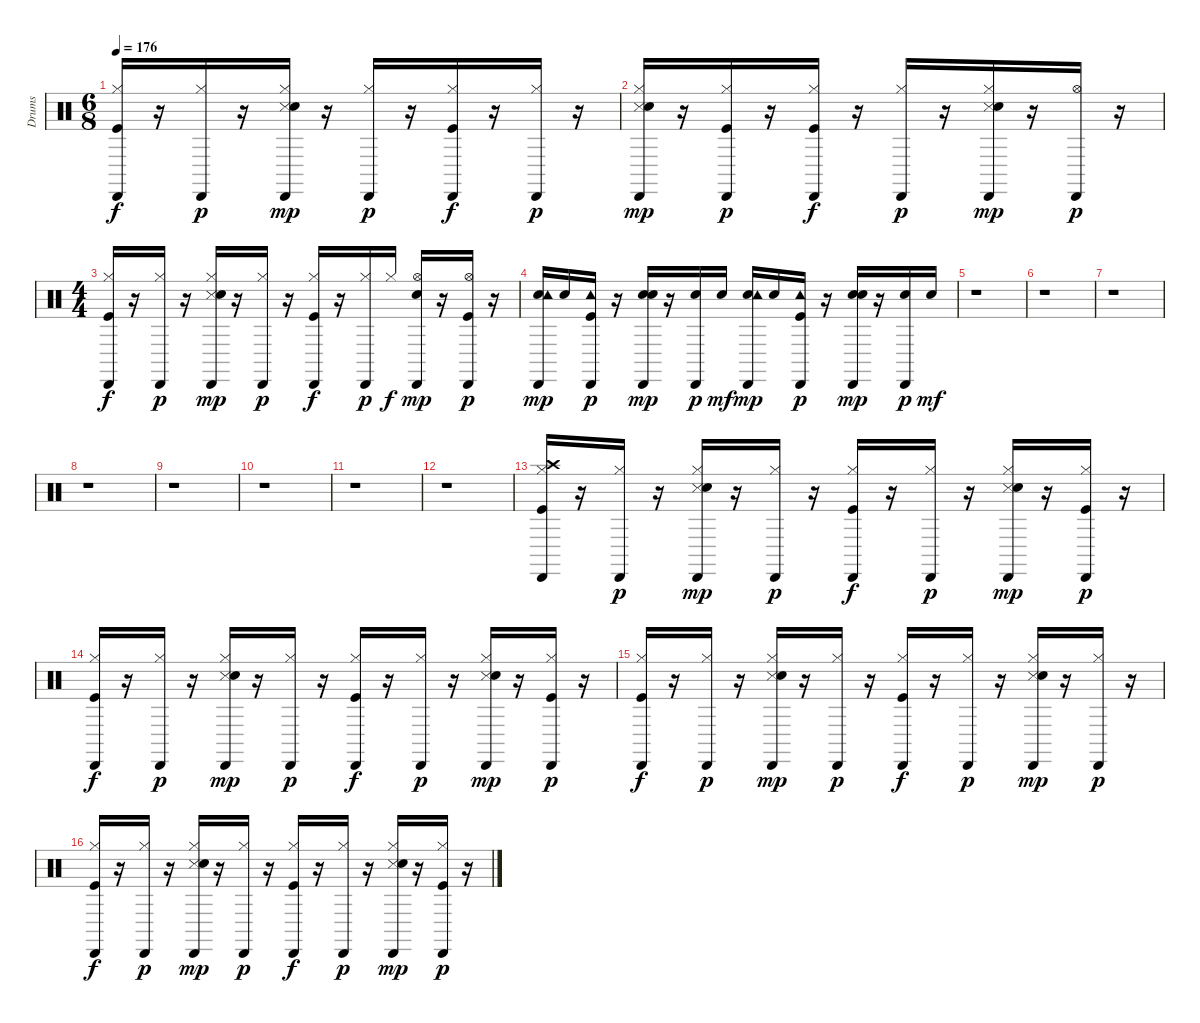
\track ("Drums" "Drums") {instrument percussion}
\staff {score}
\articulation defaults
\ts (6 8)
\tempo 176
\clef neutral
\ks c
("Kick (hit)" "Hi-Hat (closed)" "Cabasa (hit)").16{dy f} r.16 ("Hi-Hat (closed)" "Cabasa (hit)").16{dy p} r.16 ("Hi-Hat (closed)" "Snare (side stick) 3" "Hand Clap (hit)" "Cabasa (hit)").16{dy mp} r.16 ("Hi-Hat (closed)" "Cabasa (hit)").16{dy p} r.16 ("Kick (hit)" "Hi-Hat (closed)" "Cabasa (hit)").16{dy f} r.16 ("Hi-Hat (closed)" "Cabasa (hit)").16{dy p} r.16 |
("Hi-Hat (closed)" "Snare (side stick) 3" "Hand Clap (hit)" "Cabasa (hit)").16{dy mp} r.16 ("Kick (hit)" "Hi-Hat (closed)" "Cabasa (hit)").16{dy p} r.16 ("Kick (hit)" "Hi-Hat (closed)" "Cabasa (hit)").16{dy f} r.16 ("Hi-Hat (closed)" "Cabasa (hit)").16{dy p} r.16 ("Hi-Hat (closed)" "Snare (side stick) 3" "Hand Clap (hit)" "Cabasa (hit)").16{dy mp} r.16 ("Hi-Hat (open)" "Cabasa (hit)").16{dy p} r.16 |
\ts (4 4)
("Kick (hit)" "Hi-Hat (closed)" "Cabasa (hit)").16{dy f} r.16 ("Hi-Hat (closed)" "Cabasa (hit)").16{dy p} r.16 ("Hi-Hat (closed)" "Snare (side stick) 3" "Hand Clap (hit)" "Cabasa (hit)").16{dy mp} r.16 ("Hi-Hat (closed)" "Cabasa (hit)").16{dy p} r.16 ("Kick (hit)" "Hi-Hat (closed)" "Cabasa (hit)").16{dy f} r.16 ("Hi-Hat (closed)" "Cabasa (hit)").16{dy p} "Hi-Hat (closed)".16{dy f} ("Hi-Hat (open)" "Hand Clap (hit)" "Cabasa (hit)").16{dy mp} r.16 ("Kick (hit)" "Hi-Hat (open)" "Cabasa (hit)").16{dy p} r.16 |
("Snare (hit) 2" "Tambourine (hit)" "Cabasa (hit)").16{dy mp} "Snare (hit) 2".16 ("Kick (hit)" "Tambourine (hit)" "Cabasa (hit)").16{dy p} r.16 ("Snare (hit) 2" "Hand Clap (hit)" "Cabasa (hit)").16{dy mp} r.16 ("Snare (hit) 2" "Cabasa (hit)").16{dy p} "Snare (hit) 2".16{dy mf} ("Snare (hit) 2" "Tambourine (hit)" "Cabasa (hit)").16{dy mp} "Snare (hit) 2".16 ("Kick (hit)" "Tambourine (hit)" "Cabasa (hit)").16{dy p} r.16 ("Snare (hit) 2" "Hand Clap (hit)" "Cabasa (hit)").16{dy mp} r.16 ("Snare (hit) 2" "Cabasa (hit)").16{dy p} "Snare (hit) 2".16{dy mf} |
r.1 |
r.1 |
r.1 |
r.1 |
r.1 |
r.1 |
r.1 |
r.1 |
("Kick (hit)" "Hi-Hat (closed)" "Crash high (hit)" "Cabasa (hit)").16 r.16 ("Hi-Hat (closed)" "Cabasa (hit)").16{dy p} r.16 ("Hi-Hat (closed)" "Snare (side stick) 3" "Hand Clap (hit)" "Cabasa (hit)").16{dy mp} r.16 ("Hi-Hat (closed)" "Cabasa (hit)").16{dy p} r.16 ("Kick (hit)" "Hi-Hat (closed)" "Cabasa (hit)").16{dy f} r.16 ("Hi-Hat (closed)" "Cabasa (hit)").16{dy p} r.16 ("Hi-Hat (closed)" "Snare (side stick) 3" "Hand Clap (hit)" "Cabasa (hit)").16{dy mp} r.16 ("Kick (hit)" "Hi-Hat (closed)" "Cabasa (hit)").16{dy p} r.16 |
("Kick (hit)" "Hi-Hat (closed)" "Cabasa (hit)").16{dy f} r.16 ("Hi-Hat (closed)" "Cabasa (hit)").16{dy p} r.16 ("Hi-Hat (closed)" "Snare (side stick) 3" "Hand Clap (hit)" "Cabasa (hit)").16{dy mp} r.16 ("Hi-Hat (closed)" "Cabasa (hit)").16{dy p} r.16 ("Kick (hit)" "Hi-Hat (closed)" "Cabasa (hit)").16{dy f} r.16 ("Hi-Hat (closed)" "Cabasa (hit)").16{dy p} r.16 ("Hi-Hat (closed)" "Snare (side stick) 3" "Hand Clap (hit)" "Cabasa (hit)").16{dy mp} r.16 ("Kick (hit)" "Hi-Hat (closed)" "Cabasa (hit)").16{dy p} r.16 |
("Kick (hit)" "Hi-Hat (closed)" "Cabasa (hit)").16{dy f} r.16 ("Hi-Hat (closed)" "Cabasa (hit)").16{dy p} r.16 ("Hi-Hat (closed)" "Snare (side stick) 3" "Hand Clap (hit)" "Cabasa (hit)").16{dy mp} r.16 ("Hi-Hat (closed)" "Cabasa (hit)").16{dy p} r.16 ("Kick (hit)" "Hi-Hat (closed)" "Cabasa (hit)").16{dy f} r.16 ("Hi-Hat (closed)" "Cabasa (hit)").16{dy p} r.16 ("Hi-Hat (closed)" "Snare (side stick) 3" "Hand Clap (hit)" "Cabasa (hit)").16{dy mp} r.16 ("Hi-Hat (closed)" "Cabasa (hit)").16{dy p} r.16 |
("Kick (hit)" "Hi-Hat (closed)" "Cabasa (hit)").16{dy f} r.16 ("Hi-Hat (closed)" "Cabasa (hit)").16{dy p} r.16 ("Hi-Hat (closed)" "Snare (side stick) 3" "Hand Clap (hit)" "Cabasa (hit)").16{dy mp} r.16 ("Hi-Hat (closed)" "Cabasa (hit)").16{dy p} r.16 ("Kick (hit)" "Hi-Hat (closed)" "Cabasa (hit)").16{dy f} r.16 ("Hi-Hat (closed)" "Cabasa (hit)").16{dy p} r.16 ("Hi-Hat (closed)" "Snare (side stick) 3" "Hand Clap (hit)" "Cabasa (hit)").16{dy mp} r.16 ("Kick (hit)" "Hi-Hat (closed)" "Cabasa (hit)").16{dy p} r.16
